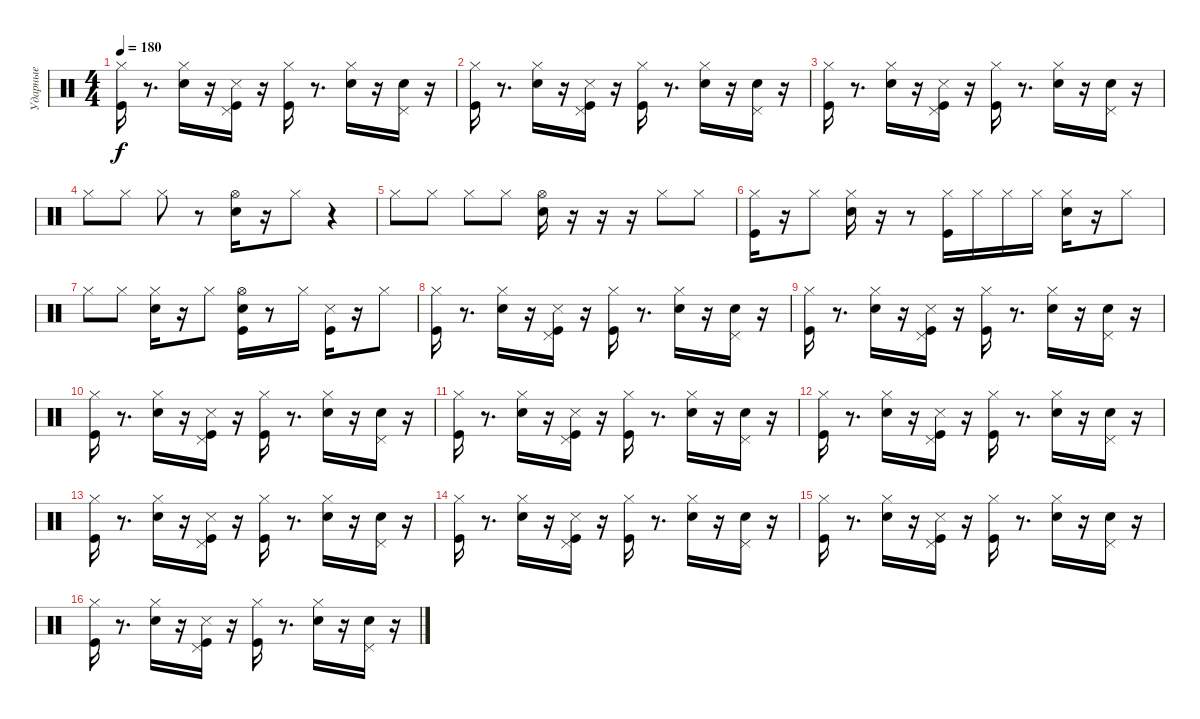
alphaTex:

\track ("Ударные" "Ударные") {instrument percussion}
\staff {score}
\articulation defaults
\ts (4 4)
\tempo 180
\clef neutral
\ks c
("Hi-Hat (closed)" "Kick (hit)").16{dy f} r.8{d} ("Hi-Hat (closed)" "Snare (hit) 2").16 r.16 ("Snare (side stick) 3" "Kick (hit)" "Pedal Hi-Hat (hit)").16 r.16 ("Hi-Hat (closed)" "Kick (hit)").16 r.8{d} ("Hi-Hat (closed)" "Snare (hit) 2").16 r.16 ("Snare (hit) 2" "Pedal Hi-Hat (hit)").16 r.16 |
("Hi-Hat (closed)" "Kick (hit)").16 r.8{d} ("Hi-Hat (closed)" "Snare (hit) 2").16 r.16 ("Snare (side stick) 3" "Kick (hit)" "Pedal Hi-Hat (hit)").16 r.16 ("Hi-Hat (closed)" "Kick (hit)").16 r.8{d} ("Hi-Hat (closed)" "Snare (hit) 2").16 r.16 ("Snare (hit) 2" "Pedal Hi-Hat (hit)").16 r.16 |
("Hi-Hat (closed)" "Kick (hit)").16 r.8{d} ("Hi-Hat (closed)" "Snare (hit) 2").16 r.16 ("Snare (side stick) 3" "Kick (hit)" "Pedal Hi-Hat (hit)").16 r.16 ("Hi-Hat (closed)" "Kick (hit)").16 r.8{d} ("Hi-Hat (closed)" "Snare (hit) 2").16 r.16 ("Snare (hit) 2" "Pedal Hi-Hat (hit)").16 r.16 |
"Hi-Hat (closed)".8 "Hi-Hat (closed)".8 "Hi-Hat (closed)".8 r.8 ("Snare (hit) 2" "Hi-Hat (open)").16 r.16 "Hi-Hat (closed)".8 r.4 |
"Hi-Hat (closed)".8 "Hi-Hat (closed)".8 "Hi-Hat (closed)".8 "Hi-Hat (closed)".8 ("Snare (hit) 2" "Hi-Hat (open)").16 r.16 r.16 r.16 "Hi-Hat (closed)".8 "Hi-Hat (closed)".8 |
("Hi-Hat (closed)" "Kick (hit)").16 r.16 "Hi-Hat (closed)".8 ("Hi-Hat (closed)" "Snare (hit) 2").16 r.16 r.8 ("Hi-Hat (closed)" "Kick (hit)").16 "Hi-Hat (closed)".16 "Hi-Hat (closed)".16 "Hi-Hat (closed)".16 ("Hi-Hat (closed)" "Snare (hit) 2").16 r.16 "Hi-Hat (closed)".8 |
"Hi-Hat (closed)".8 "Hi-Hat (closed)".8 ("Hi-Hat (closed)" "Snare (hit) 2").16 r.16 "Hi-Hat (closed)".8 ("Hi-Hat (open)" "Kick (hit)" "Snare (hit) 2").16 r.8 "Hi-Hat (closed)".16 ("Kick (hit)" "Snare (side stick) 3").16 r.16 "Hi-Hat (closed)".8 |
("Hi-Hat (closed)" "Kick (hit)").16 r.8{d} ("Hi-Hat (closed)" "Snare (hit) 2").16 r.16 ("Snare (side stick) 3" "Kick (hit)" "Pedal Hi-Hat (hit)").16 r.16 ("Hi-Hat (closed)" "Kick (hit)").16 r.8{d} ("Hi-Hat (closed)" "Snare (hit) 2").16 r.16 ("Snare (hit) 2" "Pedal Hi-Hat (hit)").16 r.16 |
("Hi-Hat (closed)" "Kick (hit)").16 r.8{d} ("Hi-Hat (closed)" "Snare (hit) 2").16 r.16 ("Snare (side stick) 3" "Kick (hit)" "Pedal Hi-Hat (hit)").16 r.16 ("Hi-Hat (closed)" "Kick (hit)").16 r.8{d} ("Hi-Hat (closed)" "Snare (hit) 2").16 r.16 ("Snare (hit) 2" "Pedal Hi-Hat (hit)").16 r.16 |
("Hi-Hat (closed)" "Kick (hit)").16 r.8{d} ("Hi-Hat (closed)" "Snare (hit) 2").16 r.16 ("Snare (side stick) 3" "Kick (hit)" "Pedal Hi-Hat (hit)").16 r.16 ("Hi-Hat (closed)" "Kick (hit)").16 r.8{d} ("Hi-Hat (closed)" "Snare (hit) 2").16 r.16 ("Snare (hit) 2" "Pedal Hi-Hat (hit)").16 r.16 |
("Hi-Hat (closed)" "Kick (hit)").16 r.8{d} ("Hi-Hat (closed)" "Snare (hit) 2").16 r.16 ("Snare (side stick) 3" "Kick (hit)" "Pedal Hi-Hat (hit)").16 r.16 ("Hi-Hat (closed)" "Kick (hit)").16 r.8{d} ("Hi-Hat (closed)" "Snare (hit) 2").16 r.16 ("Snare (hit) 2" "Pedal Hi-Hat (hit)").16 r.16 |
("Hi-Hat (closed)" "Kick (hit)").16 r.8{d} ("Hi-Hat (closed)" "Snare (hit) 2").16 r.16 ("Snare (side stick) 3" "Kick (hit)" "Pedal Hi-Hat (hit)").16 r.16 ("Hi-Hat (closed)" "Kick (hit)").16 r.8{d} ("Hi-Hat (closed)" "Snare (hit) 2").16 r.16 ("Snare (hit) 2" "Pedal Hi-Hat (hit)").16 r.16 |
("Hi-Hat (closed)" "Kick (hit)").16 r.8{d} ("Hi-Hat (closed)" "Snare (hit) 2").16 r.16 ("Snare (side stick) 3" "Kick (hit)" "Pedal Hi-Hat (hit)").16 r.16 ("Hi-Hat (closed)" "Kick (hit)").16 r.8{d} ("Hi-Hat (closed)" "Snare (hit) 2").16 r.16 ("Snare (hit) 2" "Pedal Hi-Hat (hit)").16 r.16 |
("Hi-Hat (closed)" "Kick (hit)").16 r.8{d} ("Hi-Hat (closed)" "Snare (hit) 2").16 r.16 ("Snare (side stick) 3" "Kick (hit)" "Pedal Hi-Hat (hit)").16 r.16 ("Hi-Hat (closed)" "Kick (hit)").16 r.8{d} ("Hi-Hat (closed)" "Snare (hit) 2").16 r.16 ("Snare (hit) 2" "Pedal Hi-Hat (hit)").16 r.16 |
("Hi-Hat (closed)" "Kick (hit)").16 r.8{d} ("Hi-Hat (closed)" "Snare (hit) 2").16 r.16 ("Snare (side stick) 3" "Kick (hit)" "Pedal Hi-Hat (hit)").16 r.16 ("Hi-Hat (closed)" "Kick (hit)").16 r.8{d} ("Hi-Hat (closed)" "Snare (hit) 2").16 r.16 ("Snare (hit) 2" "Pedal Hi-Hat (hit)").16 r.16 |
("Hi-Hat (closed)" "Kick (hit)").16 r.8{d} ("Hi-Hat (closed)" "Snare (hit) 2").16 r.16 ("Snare (side stick) 3" "Kick (hit)" "Pedal Hi-Hat (hit)").16 r.16 ("Hi-Hat (closed)" "Kick (hit)").16 r.8{d} ("Hi-Hat (closed)" "Snare (hit) 2").16 r.16 ("Snare (hit) 2" "Pedal Hi-Hat (hit)").16 r.16
